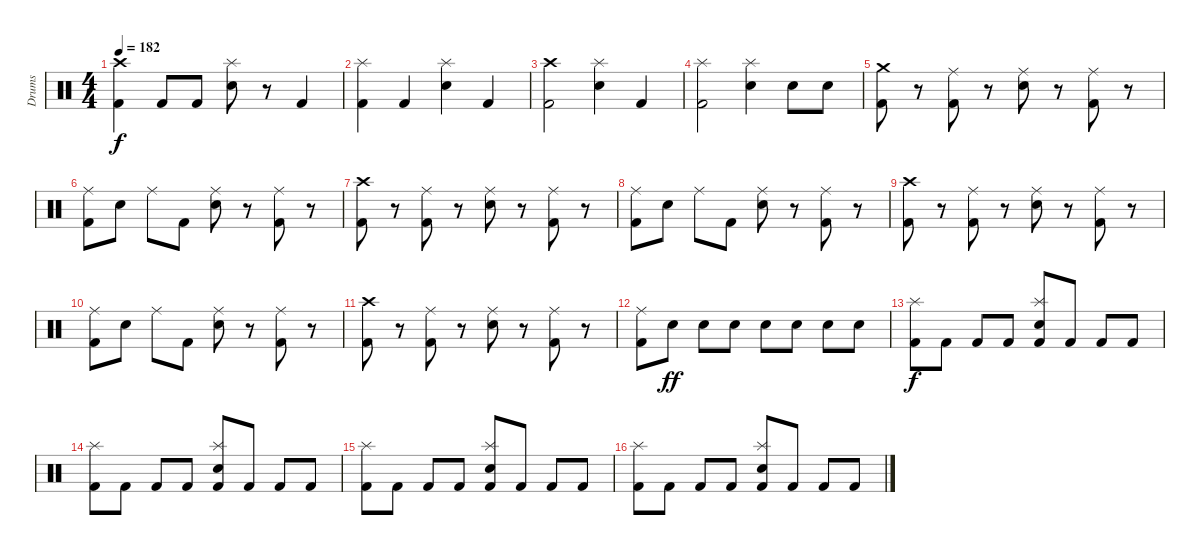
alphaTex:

\track ("Drums" "Drums") {instrument percussion}
\staff {score}
\articulation defaults
\ts (4 4)
\tempo 182
\clef neutral
\ks c
("Crash high (hit)" "Kick (hit) 2").4{dy f} "Kick (hit) 2".8 "Kick (hit) 2".8 ("Splash (hit)" "Snare (hit) 2").8 r.8 "Kick (hit) 2".4 |
("Splash (hit)" "Kick (hit) 2").4 "Kick (hit) 2".4 ("Splash (hit)" "Snare (hit) 2").4 "Kick (hit) 2".4 |
("Crash high (hit)" "Kick (hit) 2").2 ("Splash (hit)" "Snare (hit) 2").4 "Kick (hit) 2".4 |
("Splash (hit)" "Kick (hit) 2").2 ("Splash (hit)" "Snare (hit) 2").4 "Snare (hit) 2".8 "Snare (hit) 2".8 |
("Crash medium (hit)" "Kick (hit) 2").8 r.8 ("Ride (middle)" "Kick (hit) 2").8 r.8 ("Ride (middle)" "Snare (hit) 2").8 r.8 ("Ride (middle)" "Kick (hit) 2").8 r.8 |
("Ride (middle)" "Kick (hit) 2").8 "Snare (hit) 2".8 "Ride (middle)".8 "Kick (hit) 2".8 ("Ride (middle)" "Snare (hit) 2").8 r.8 ("Ride (middle)" "Kick (hit) 2").8 r.8 |
("Crash high (hit)" "Kick (hit) 2").8 r.8 ("Ride (middle)" "Kick (hit) 2").8 r.8 ("Ride (middle)" "Snare (hit) 2").8 r.8 ("Ride (middle)" "Kick (hit) 2").8 r.8 |
("Ride (middle)" "Kick (hit) 2").8 "Snare (hit) 2".8 "Ride (middle)".8 "Kick (hit) 2".8 ("Ride (middle)" "Snare (hit) 2").8 r.8 ("Ride (middle)" "Kick (hit) 2").8 r.8 |
("Crash high (hit)" "Kick (hit) 2").8 r.8 ("Ride (middle)" "Kick (hit) 2").8 r.8 ("Ride (middle)" "Snare (hit) 2").8 r.8 ("Ride (middle)" "Kick (hit) 2").8 r.8 |
("Ride (middle)" "Kick (hit) 2").8 "Snare (hit) 2".8 "Ride (middle)".8 "Kick (hit) 2".8 ("Ride (middle)" "Snare (hit) 2").8 r.8 ("Ride (middle)" "Kick (hit) 2").8 r.8 |
("Crash high (hit)" "Kick (hit) 2").8 r.8 ("Ride (middle)" "Kick (hit) 2").8 r.8 ("Ride (middle)" "Snare (hit) 2").8 r.8 ("Ride (middle)" "Kick (hit) 2").8 r.8 |
("Ride (middle)" "Kick (hit) 2").8 "Snare (hit) 2".8{dy ff} "Snare (hit) 2".8 "Snare (hit) 2".8 "Snare (hit) 2".8 "Snare (hit) 2".8 "Snare (hit) 2".8 "Snare (hit) 2".8 |
("Splash (hit)" "Kick (hit) 2").8{dy f} "Kick (hit) 2".8 "Kick (hit) 2".8 "Kick (hit) 2".8 ("Splash (hit)" "Snare (hit) 2" "Kick (hit) 2").8 "Kick (hit) 2".8 "Kick (hit) 2".8 "Kick (hit) 2".8 |
("Splash (hit)" "Kick (hit) 2").8 "Kick (hit) 2".8 "Kick (hit) 2".8 "Kick (hit) 2".8 ("Splash (hit)" "Snare (hit) 2" "Kick (hit) 2").8 "Kick (hit) 2".8 "Kick (hit) 2".8 "Kick (hit) 2".8 |
("Splash (hit)" "Kick (hit) 2").8 "Kick (hit) 2".8 "Kick (hit) 2".8 "Kick (hit) 2".8 ("Splash (hit)" "Snare (hit) 2" "Kick (hit) 2").8 "Kick (hit) 2".8 "Kick (hit) 2".8 "Kick (hit) 2".8 |
("Splash (hit)" "Kick (hit) 2").8 "Kick (hit) 2".8 "Kick (hit) 2".8 "Kick (hit) 2".8 ("Splash (hit)" "Snare (hit) 2" "Kick (hit) 2").8 "Kick (hit) 2".8 "Kick (hit) 2".8 "Kick (hit) 2".8
